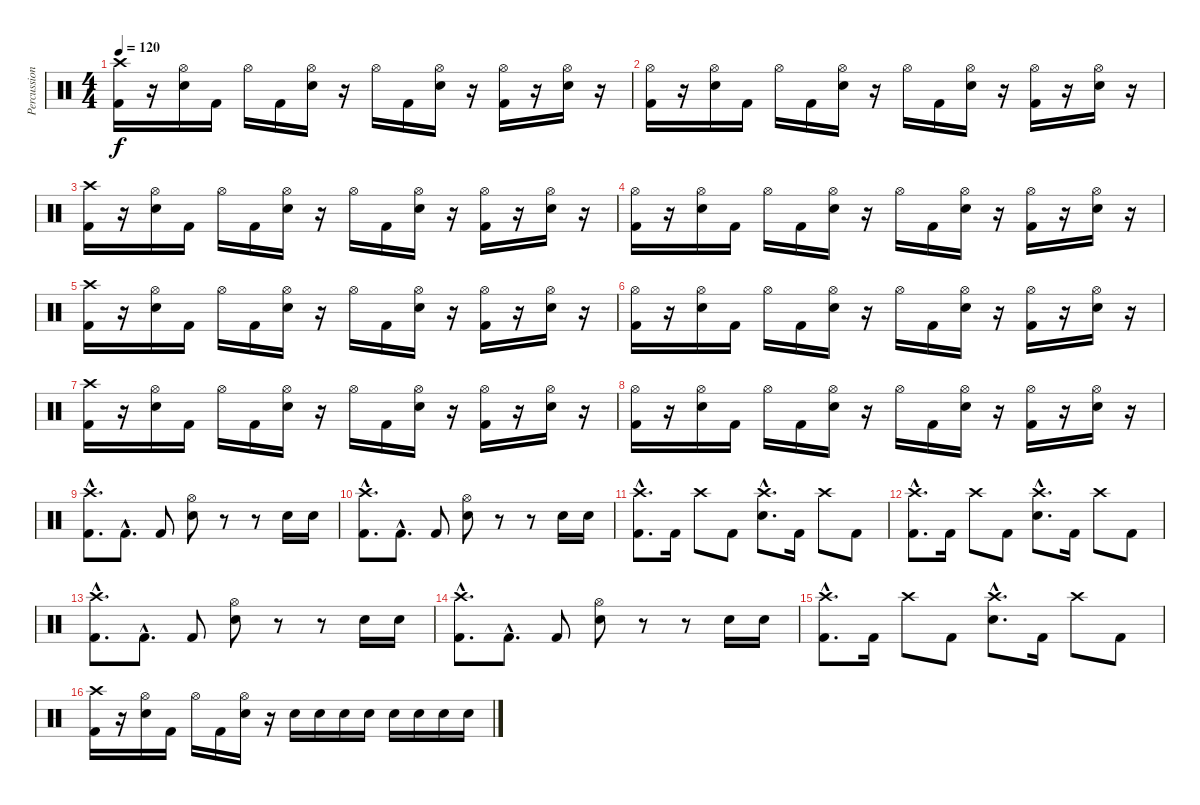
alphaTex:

\track ("Percussion" "Percussion") {instrument percussion}
\staff {score}
\articulation defaults
\ts (4 4)
\tempo 120
\clef neutral
\ks c
("Crash high (hit)" "Kick (hit) 2").16{dy f} r.16 ("Hi-Hat (open)" "Electric Snare (hit)").16 "Kick (hit) 2".16 "Hi-Hat (open)".16 "Kick (hit) 2".16 ("Hi-Hat (open)" "Electric Snare (hit)").16 r.16 "Hi-Hat (open)".16 "Kick (hit) 2".16 ("Hi-Hat (open)" "Electric Snare (hit)").16 r.16 ("Hi-Hat (open)" "Kick (hit) 2").16 r.16 ("Hi-Hat (open)" "Electric Snare (hit)").16 r.16 |
("Hi-Hat (open)" "Kick (hit) 2").16 r.16 ("Hi-Hat (open)" "Electric Snare (hit)").16 "Kick (hit) 2".16 "Hi-Hat (open)".16 "Kick (hit) 2".16 ("Hi-Hat (open)" "Electric Snare (hit)").16 r.16 "Hi-Hat (open)".16 "Kick (hit) 2".16 ("Hi-Hat (open)" "Electric Snare (hit)").16 r.16 ("Hi-Hat (open)" "Kick (hit) 2").16 r.16 ("Hi-Hat (open)" "Electric Snare (hit)").16 r.16 |
("Crash high (hit)" "Kick (hit) 2").16 r.16 ("Hi-Hat (open)" "Electric Snare (hit)").16 "Kick (hit) 2".16 "Hi-Hat (open)".16 "Kick (hit) 2".16 ("Hi-Hat (open)" "Electric Snare (hit)").16 r.16 "Hi-Hat (open)".16 "Kick (hit) 2".16 ("Hi-Hat (open)" "Electric Snare (hit)").16 r.16 ("Hi-Hat (open)" "Kick (hit) 2").16 r.16 ("Hi-Hat (open)" "Electric Snare (hit)").16 r.16 |
("Hi-Hat (open)" "Kick (hit) 2").16 r.16 ("Hi-Hat (open)" "Electric Snare (hit)").16 "Kick (hit) 2".16 "Hi-Hat (open)".16 "Kick (hit) 2".16 ("Hi-Hat (open)" "Electric Snare (hit)").16 r.16 "Hi-Hat (open)".16 "Kick (hit) 2".16 ("Hi-Hat (open)" "Electric Snare (hit)").16 r.16 ("Hi-Hat (open)" "Kick (hit) 2").16 r.16 ("Hi-Hat (open)" "Electric Snare (hit)").16 r.16 |
("Crash high (hit)" "Kick (hit) 2").16 r.16 ("Hi-Hat (open)" "Electric Snare (hit)").16 "Kick (hit) 2".16 "Hi-Hat (open)".16 "Kick (hit) 2".16 ("Hi-Hat (open)" "Electric Snare (hit)").16 r.16 "Hi-Hat (open)".16 "Kick (hit) 2".16 ("Hi-Hat (open)" "Electric Snare (hit)").16 r.16 ("Hi-Hat (open)" "Kick (hit) 2").16 r.16 ("Hi-Hat (open)" "Electric Snare (hit)").16 r.16 |
("Hi-Hat (open)" "Kick (hit) 2").16 r.16 ("Hi-Hat (open)" "Electric Snare (hit)").16 "Kick (hit) 2".16 "Hi-Hat (open)".16 "Kick (hit) 2".16 ("Hi-Hat (open)" "Electric Snare (hit)").16 r.16 "Hi-Hat (open)".16 "Kick (hit) 2".16 ("Hi-Hat (open)" "Electric Snare (hit)").16 r.16 ("Hi-Hat (open)" "Kick (hit) 2").16 r.16 ("Hi-Hat (open)" "Electric Snare (hit)").16 r.16 |
("Crash high (hit)" "Kick (hit) 2").16 r.16 ("Hi-Hat (open)" "Electric Snare (hit)").16 "Kick (hit) 2".16 "Hi-Hat (open)".16 "Kick (hit) 2".16 ("Hi-Hat (open)" "Electric Snare (hit)").16 r.16 "Hi-Hat (open)".16 "Kick (hit) 2".16 ("Hi-Hat (open)" "Electric Snare (hit)").16 r.16 ("Hi-Hat (open)" "Kick (hit) 2").16 r.16 ("Hi-Hat (open)" "Electric Snare (hit)").16 r.16 |
("Hi-Hat (open)" "Kick (hit) 2").16 r.16 ("Hi-Hat (open)" "Electric Snare (hit)").16 "Kick (hit) 2".16 "Hi-Hat (open)".16 "Kick (hit) 2".16 ("Hi-Hat (open)" "Electric Snare (hit)").16 r.16 "Hi-Hat (open)".16 "Kick (hit) 2".16 ("Hi-Hat (open)" "Electric Snare (hit)").16 r.16 ("Hi-Hat (open)" "Kick (hit) 2").16 r.16 ("Hi-Hat (open)" "Electric Snare (hit)").16 r.16 |
("Crash high (hit)"{hac} "Kick (hit) 2"{hac}).8{d} "Kick (hit) 2"{hac}.8{d} "Kick (hit) 2".8 ("Hi-Hat (open)" "Electric Snare (hit)").8 r.8 r.8 "Electric Snare (hit)".16 "Electric Snare (hit)".16 |
("Crash high (hit)"{hac} "Kick (hit) 2"{hac}).8{d} "Kick (hit) 2"{hac}.8{d} "Kick (hit) 2".8 ("Hi-Hat (open)" "Electric Snare (hit)").8 r.8 r.8 "Electric Snare (hit)".16 "Electric Snare (hit)".16 |
("Crash high (hit)"{hac} "Kick (hit) 2"{hac}).8{d} "Kick (hit) 2".16 "Crash high (hit)".8 "Kick (hit) 2".8 ("Crash high (hit)"{hac} "Electric Snare (hit)"{hac}).8{d} "Kick (hit) 2".16 "Crash high (hit)".8 "Kick (hit) 2".8 |
("Crash high (hit)"{hac} "Kick (hit) 2"{hac}).8{d} "Kick (hit) 2".16 "Crash high (hit)".8 "Kick (hit) 2".8 ("Crash high (hit)"{hac} "Electric Snare (hit)"{hac}).8{d} "Kick (hit) 2".16 "Crash high (hit)".8 "Kick (hit) 2".8 |
("Crash high (hit)"{hac} "Kick (hit) 2"{hac}).8{d} "Kick (hit) 2"{hac}.8{d} "Kick (hit) 2".8 ("Hi-Hat (open)" "Electric Snare (hit)").8 r.8 r.8 "Electric Snare (hit)".16 "Electric Snare (hit)".16 |
("Crash high (hit)"{hac} "Kick (hit) 2"{hac}).8{d} "Kick (hit) 2"{hac}.8{d} "Kick (hit) 2".8 ("Hi-Hat (open)" "Electric Snare (hit)").8 r.8 r.8 "Electric Snare (hit)".16 "Electric Snare (hit)".16 |
("Crash high (hit)"{hac} "Kick (hit) 2"{hac}).8{d} "Kick (hit) 2".16 "Crash high (hit)".8 "Kick (hit) 2".8 ("Crash high (hit)"{hac} "Electric Snare (hit)"{hac}).8{d} "Kick (hit) 2".16 "Crash high (hit)".8 "Kick (hit) 2".8 |
("Crash high (hit)" "Kick (hit) 2").16 r.16 ("Hi-Hat (open)" "Electric Snare (hit)").16 "Kick (hit) 2".16 "Hi-Hat (open)".16 "Kick (hit) 2".16 ("Hi-Hat (open)" "Electric Snare (hit)").16 r.16 "Electric Snare (hit)".16 "Electric Snare (hit)".16 "Electric Snare (hit)".16 "Electric Snare (hit)".16 "Electric Snare (hit)".16 "Electric Snare (hit)".16 "Electric Snare (hit)".16 "Electric Snare (hit)".16
